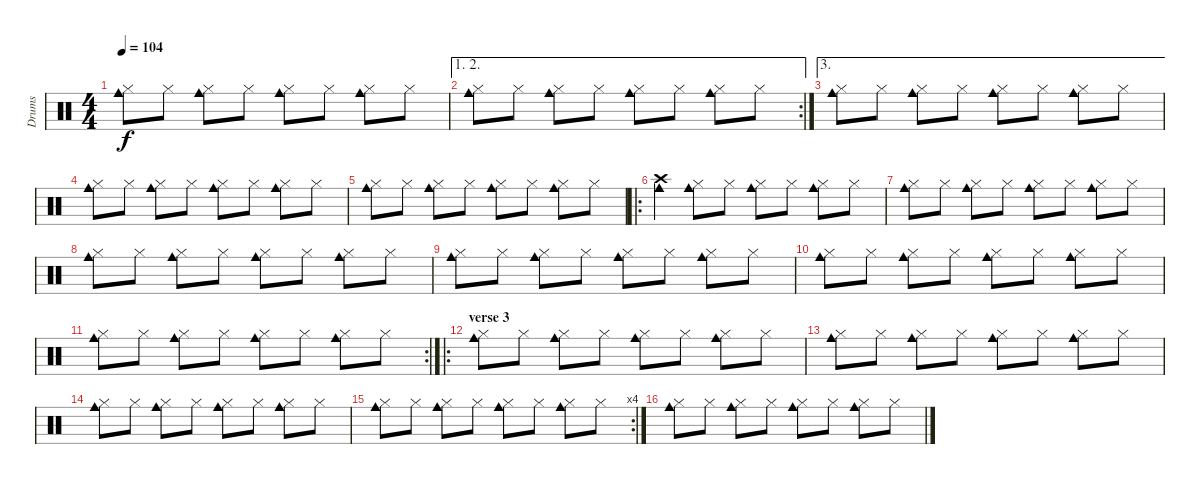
\track ("Drums" "Drums") {instrument percussion}
\staff {score}
\articulation defaults
\ts (4 4)
\tempo 104
\clef neutral
\ks c
("Cowbell medium (hit)" "Hi-Hat (closed)").8{dy f} "Hi-Hat (closed)".8 ("Cowbell medium (hit)" "Hi-Hat (closed)").8 "Hi-Hat (closed)".8 ("Cowbell medium (hit)" "Hi-Hat (closed)").8 "Hi-Hat (closed)".8 ("Cowbell medium (hit)" "Hi-Hat (closed)").8 "Hi-Hat (closed)".8 |
\ae (1 2)
\rc 2
("Cowbell medium (hit)" "Hi-Hat (closed)").8 "Hi-Hat (closed)".8 ("Cowbell medium (hit)" "Hi-Hat (closed)").8 "Hi-Hat (closed)".8 ("Cowbell medium (hit)" "Hi-Hat (closed)").8 "Hi-Hat (closed)".8 ("Cowbell medium (hit)" "Hi-Hat (closed)").8 "Hi-Hat (closed)".8 |
\ae 3
("Cowbell medium (hit)" "Hi-Hat (closed)").8 "Hi-Hat (closed)".8 ("Cowbell medium (hit)" "Hi-Hat (closed)").8 "Hi-Hat (closed)".8 ("Cowbell medium (hit)" "Hi-Hat (closed)").8 "Hi-Hat (closed)".8 ("Cowbell medium (hit)" "Hi-Hat (closed)").8 "Hi-Hat (closed)".8 |
("Cowbell medium (hit)" "Hi-Hat (closed)").8 "Hi-Hat (closed)".8 ("Cowbell medium (hit)" "Hi-Hat (closed)").8 "Hi-Hat (closed)".8 ("Cowbell medium (hit)" "Hi-Hat (closed)").8 "Hi-Hat (closed)".8 ("Cowbell medium (hit)" "Hi-Hat (closed)").8 "Hi-Hat (closed)".8 |
("Cowbell medium (hit)" "Hi-Hat (closed)").8 "Hi-Hat (closed)".8 ("Cowbell medium (hit)" "Hi-Hat (closed)").8 "Hi-Hat (closed)".8 ("Cowbell medium (hit)" "Hi-Hat (closed)").8 "Hi-Hat (closed)".8 ("Cowbell medium (hit)" "Hi-Hat (closed)").8 "Hi-Hat (closed)".8 |
\ro
("Cowbell medium (hit)" "Crash high (hit)").4 ("Cowbell medium (hit)" "Hi-Hat (closed)").8 "Hi-Hat (closed)".8 ("Cowbell medium (hit)" "Hi-Hat (closed)").8 "Hi-Hat (closed)".8 ("Cowbell medium (hit)" "Hi-Hat (closed)").8 "Hi-Hat (closed)".8 |
("Cowbell medium (hit)" "Hi-Hat (closed)").8 "Hi-Hat (closed)".8 ("Cowbell medium (hit)" "Hi-Hat (closed)").8 "Hi-Hat (closed)".8 ("Cowbell medium (hit)" "Hi-Hat (closed)").8 "Hi-Hat (closed)".8 ("Cowbell medium (hit)" "Hi-Hat (closed)").8 "Hi-Hat (closed)".8 |
("Cowbell medium (hit)" "Hi-Hat (closed)").8 "Hi-Hat (closed)".8 ("Cowbell medium (hit)" "Hi-Hat (closed)").8 "Hi-Hat (closed)".8 ("Cowbell medium (hit)" "Hi-Hat (closed)").8 "Hi-Hat (closed)".8 ("Cowbell medium (hit)" "Hi-Hat (closed)").8 "Hi-Hat (closed)".8 |
("Cowbell medium (hit)" "Hi-Hat (closed)").8 "Hi-Hat (closed)".8 ("Cowbell medium (hit)" "Hi-Hat (closed)").8 "Hi-Hat (closed)".8 ("Cowbell medium (hit)" "Hi-Hat (closed)").8 "Hi-Hat (closed)".8 ("Cowbell medium (hit)" "Hi-Hat (closed)").8 "Hi-Hat (closed)".8 |
("Cowbell medium (hit)" "Hi-Hat (closed)").8 "Hi-Hat (closed)".8 ("Cowbell medium (hit)" "Hi-Hat (closed)").8 "Hi-Hat (closed)".8 ("Cowbell medium (hit)" "Hi-Hat (closed)").8 "Hi-Hat (closed)".8 ("Cowbell medium (hit)" "Hi-Hat (closed)").8 "Hi-Hat (closed)".8 |
\rc 2
("Cowbell medium (hit)" "Hi-Hat (closed)").8 "Hi-Hat (closed)".8 ("Cowbell medium (hit)" "Hi-Hat (closed)").8 "Hi-Hat (closed)".8 ("Cowbell medium (hit)" "Hi-Hat (closed)").8 "Hi-Hat (closed)".8 ("Cowbell medium (hit)" "Hi-Hat (closed)").8 "Hi-Hat (closed)".8 |
\ro
\section ("" "verse 3")
("Cowbell medium (hit)" "Hi-Hat (closed)").8 "Hi-Hat (closed)".8 ("Cowbell medium (hit)" "Hi-Hat (closed)").8 "Hi-Hat (closed)".8 ("Cowbell medium (hit)" "Hi-Hat (closed)").8 "Hi-Hat (closed)".8 ("Cowbell medium (hit)" "Hi-Hat (closed)").8 "Hi-Hat (closed)".8 |
("Cowbell medium (hit)" "Hi-Hat (closed)").8 "Hi-Hat (closed)".8 ("Cowbell medium (hit)" "Hi-Hat (closed)").8 "Hi-Hat (closed)".8 ("Cowbell medium (hit)" "Hi-Hat (closed)").8 "Hi-Hat (closed)".8 ("Cowbell medium (hit)" "Hi-Hat (closed)").8 "Hi-Hat (closed)".8 |
("Cowbell medium (hit)" "Hi-Hat (closed)").8 "Hi-Hat (closed)".8 ("Cowbell medium (hit)" "Hi-Hat (closed)").8 "Hi-Hat (closed)".8 ("Cowbell medium (hit)" "Hi-Hat (closed)").8 "Hi-Hat (closed)".8 ("Cowbell medium (hit)" "Hi-Hat (closed)").8 "Hi-Hat (closed)".8 |
\rc 4
("Cowbell medium (hit)" "Hi-Hat (closed)").8 "Hi-Hat (closed)".8 ("Cowbell medium (hit)" "Hi-Hat (closed)").8 "Hi-Hat (closed)".8 ("Cowbell medium (hit)" "Hi-Hat (closed)").8 "Hi-Hat (closed)".8 ("Cowbell medium (hit)" "Hi-Hat (closed)").8 "Hi-Hat (closed)".8 |
("Cowbell medium (hit)" "Hi-Hat (closed)").8 "Hi-Hat (closed)".8 ("Cowbell medium (hit)" "Hi-Hat (closed)").8 "Hi-Hat (closed)".8 ("Cowbell medium (hit)" "Hi-Hat (closed)").8 "Hi-Hat (closed)".8 ("Cowbell medium (hit)" "Hi-Hat (closed)").8 "Hi-Hat (closed)".8
